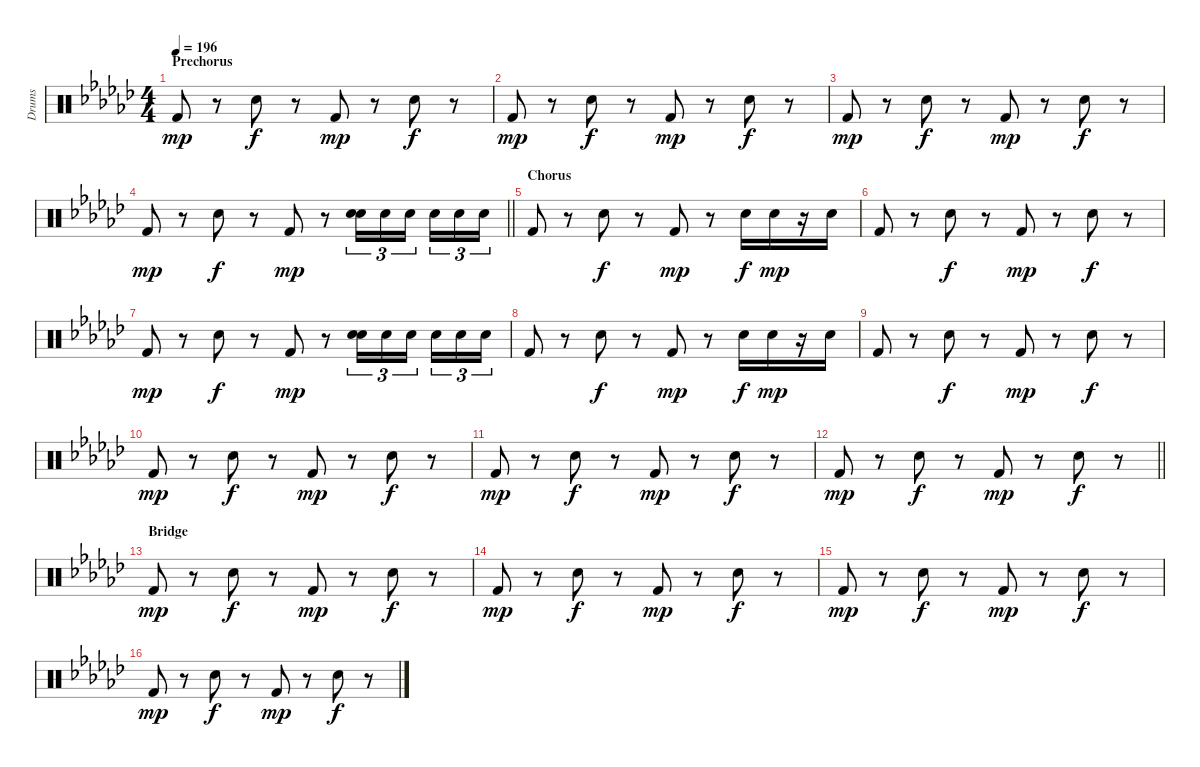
\track ("Drums" "Drums") {instrument percussion}
\staff {score}
\articulation defaults
\ts (4 4)
\section ("" "Prechorus")
\tempo 196
\clef neutral
\ks gb "Kick (hit) 2".8{dy mp}
r.8 "Snare (hit) 2".8{dy f} r.8 "Kick (hit) 2".8{dy mp} r.8 "Snare (hit) 2".8{dy f} r.8 |
"Kick (hit) 2".8{dy mp} r.8 "Snare (hit) 2".8{dy f} r.8 "Kick (hit) 2".8{dy mp} r.8 "Snare (hit) 2".8{dy f} r.8 |
"Kick (hit) 2".8{dy mp} r.8 "Snare (hit) 2".8{dy f} r.8 "Kick (hit) 2".8{dy mp} r.8 "Snare (hit) 2".8{dy f} r.8 |
\barLineRight lightlight "Kick (hit) 2".8{dy mp}
r.8 "Snare (hit) 2".8{dy f} r.8 "Kick (hit) 2".8{dy mp} r.8 ("Hand Clap (hit)" "Snare (hit) 2").16{tu (3 2)} "Hand Clap (hit)".16{tu (3 2)} "Hand Clap (hit)".16{tu (3 2) beam splitsecondary} "Hand Clap (hit)".16{tu (3 2)} "Hand Clap (hit)".16{tu (3 2)} "Hand Clap (hit)".16{tu (3 2)} |
\section ("" "Chorus")
"Kick (hit) 2".8 r.8 "Snare (hit) 2".8{dy f} r.8 "Kick (hit) 2".8{dy mp} r.8 "Snare (hit) 2".16{dy f} "Hand Clap (hit)".16{dy mp} r.16 "Hand Clap (hit)".16 |
"Kick (hit) 2".8 r.8 "Snare (hit) 2".8{dy f} r.8 "Kick (hit) 2".8{dy mp} r.8 "Snare (hit) 2".8{dy f} r.8 |
"Kick (hit) 2".8{dy mp} r.8 "Snare (hit) 2".8{dy f} r.8 "Kick (hit) 2".8{dy mp} r.8 ("Hand Clap (hit)" "Snare (hit) 2").16{tu (3 2)} "Hand Clap (hit)".16{tu (3 2)} "Hand Clap (hit)".16{tu (3 2) beam splitsecondary} "Hand Clap (hit)".16{tu (3 2)} "Hand Clap (hit)".16{tu (3 2)} "Hand Clap (hit)".16{tu (3 2)} |
"Kick (hit) 2".8 r.8 "Snare (hit) 2".8{dy f} r.8 "Kick (hit) 2".8{dy mp} r.8 "Snare (hit) 2".16{dy f} "Hand Clap (hit)".16{dy mp} r.16 "Hand Clap (hit)".16 |
"Kick (hit) 2".8 r.8 "Snare (hit) 2".8{dy f} r.8 "Kick (hit) 2".8{dy mp} r.8 "Snare (hit) 2".8{dy f} r.8 |
"Kick (hit) 2".8{dy mp} r.8 "Snare (hit) 2".8{dy f} r.8 "Kick (hit) 2".8{dy mp} r.8 "Snare (hit) 2".8{dy f} r.8 |
"Kick (hit) 2".8{dy mp} r.8 "Snare (hit) 2".8{dy f} r.8 "Kick (hit) 2".8{dy mp} r.8 "Snare (hit) 2".8{dy f} r.8 |
\barLineRight lightlight "Kick (hit) 2".8{dy mp}
r.8 "Snare (hit) 2".8{dy f} r.8 "Kick (hit) 2".8{dy mp} r.8 "Snare (hit) 2".8{dy f} r.8 |
\section ("" "Bridge")
"Kick (hit) 2".8{dy mp} r.8 "Snare (hit) 2".8{dy f} r.8 "Kick (hit) 2".8{dy mp} r.8 "Snare (hit) 2".8{dy f} r.8 |
"Kick (hit) 2".8{dy mp} r.8 "Snare (hit) 2".8{dy f} r.8 "Kick (hit) 2".8{dy mp} r.8 "Snare (hit) 2".8{dy f} r.8 |
"Kick (hit) 2".8{dy mp} r.8 "Snare (hit) 2".8{dy f} r.8 "Kick (hit) 2".8{dy mp} r.8 "Snare (hit) 2".8{dy f} r.8 |
"Kick (hit) 2".8{dy mp} r.8 "Snare (hit) 2".8{dy f} r.8 "Kick (hit) 2".8{dy mp} r.8 "Snare (hit) 2".8{dy f} r.8
